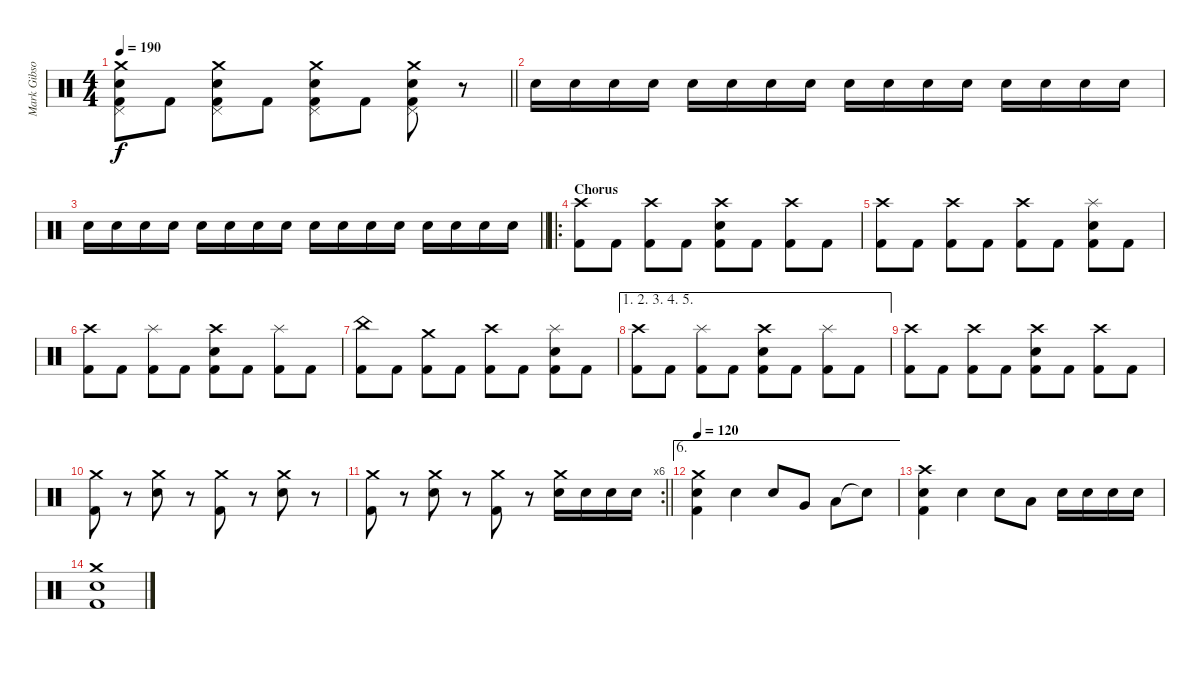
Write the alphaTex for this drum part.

\track ("Mark Gibson" "Mark Gibso") {instrument percussion}
\staff {score}
\articulation defaults
\ts (4 4)
\tempo 190
\clef neutral
\barLineRight lightlight
\ks c
("Crash medium (hit)" "Pedal Hi-Hat (hit)" "Electric Snare (hit)" "Kick (hit) 2").8{dy f} "Kick (hit) 2".8 ("Crash medium (hit)" "Pedal Hi-Hat (hit)" "Electric Snare (hit)" "Kick (hit) 2").8 "Kick (hit) 2".8 ("Crash medium (hit)" "Pedal Hi-Hat (hit)" "Electric Snare (hit)" "Kick (hit) 2").8 "Kick (hit) 2".8 ("Crash medium (hit)" "Pedal Hi-Hat (hit)" "Electric Snare (hit)" "Kick (hit) 2").8 r.8 |
"Electric Snare (hit)".16 "Electric Snare (hit)".16 "Electric Snare (hit)".16 "Electric Snare (hit)".16 "Electric Snare (hit)".16 "Electric Snare (hit)".16 "Electric Snare (hit)".16 "Electric Snare (hit)".16 "Electric Snare (hit)".16 "Electric Snare (hit)".16 "Electric Snare (hit)".16 "Electric Snare (hit)".16 "Electric Snare (hit)".16 "Electric Snare (hit)".16 "Electric Snare (hit)".16 "Electric Snare (hit)".16 |
\barLineRight lightlight "Electric Snare (hit)".16 "Electric Snare (hit)".16 "Electric Snare (hit)".16 "Electric Snare (hit)".16 "Electric Snare (hit)".16 "Electric Snare (hit)".16 "Electric Snare (hit)".16 "Electric Snare (hit)".16 "Electric Snare (hit)".16 "Electric Snare (hit)".16 "Electric Snare (hit)".16 "Electric Snare (hit)".16 "Electric Snare (hit)".16 "Electric Snare (hit)".16 "Electric Snare (hit)".16 "Electric Snare (hit)".16
|
\ro
\section ("" "Chorus")
("Crash high (hit)" "Kick (hit) 2").8 "Kick (hit) 2".8 ("Crash high (hit)" "Kick (hit) 2").8 "Kick (hit) 2".8 ("Crash high (hit)" "Electric Snare (hit)" "Kick (hit) 2").8 "Kick (hit) 2".8 ("Crash high (hit)" "Kick (hit) 2").8 "Kick (hit) 2".8 |
("Crash high (hit)" "Kick (hit) 2").8 "Kick (hit) 2".8 ("Crash high (hit)" "Kick (hit) 2").8 "Kick (hit) 2".8 ("Crash high (hit)" "Kick (hit) 2").8 "Kick (hit) 2".8 ("Splash (hit)" "Electric Snare (hit)" "Kick (hit) 2").8 "Kick (hit) 2".8 |
("Crash high (hit)" "Kick (hit) 2").8 "Kick (hit) 2".8 ("Splash (hit)" "Kick (hit) 2").8 "Kick (hit) 2".8 ("Crash high (hit)" "Electric Snare (hit)" "Kick (hit) 2").8 "Kick (hit) 2".8 ("Splash (hit)" "Kick (hit) 2").8 "Kick (hit) 2".8 |
("China (hit)" "Kick (hit) 2").8 "Kick (hit) 2".8 ("Crash medium (hit)" "Kick (hit) 2").8 "Kick (hit) 2".8 ("Crash high (hit)" "Kick (hit) 2").8 "Kick (hit) 2".8 ("Splash (hit)" "Electric Snare (hit)" "Kick (hit) 2").8 "Kick (hit) 2".8 |
\ae (1 2 3 4 5)
("Crash high (hit)" "Kick (hit) 2").8 "Kick (hit) 2".8 ("Splash (hit)" "Kick (hit) 2").8 "Kick (hit) 2".8 ("Crash high (hit)" "Electric Snare (hit)" "Kick (hit) 2").8 "Kick (hit) 2".8 ("Splash (hit)" "Kick (hit) 2").8 "Kick (hit) 2".8 |
("Crash high (hit)" "Kick (hit) 2").8 "Kick (hit) 2".8 ("Crash high (hit)" "Kick (hit) 2").8 "Kick (hit) 2".8 ("Crash high (hit)" "Electric Snare (hit)" "Kick (hit) 2").8 "Kick (hit) 2".8 ("Crash high (hit)" "Kick (hit) 2").8 "Kick (hit) 2".8 |
("Crash medium (hit)" "Kick (hit) 2").8 r.8 ("Crash medium (hit)" "Electric Snare (hit)").8 r.8 ("Crash medium (hit)" "Kick (hit) 2").8 r.8 ("Crash medium (hit)" "Electric Snare (hit)").8 r.8 |
\rc 6
\barLineRight lightlight
("Crash medium (hit)" "Kick (hit) 2").8 r.8 ("Crash medium (hit)" "Electric Snare (hit)").8 r.8 ("Crash medium (hit)" "Kick (hit) 2").8 r.8 ("Crash medium (hit)" "Electric Snare (hit)").16 "Electric Snare (hit)".16 "Electric Snare (hit)".16 "Electric Snare (hit)".16 |
\ae 6
\tempo 120
("Crash medium (hit)" "Electric Snare (hit)" "Kick (hit) 2").4 "Electric Snare (hit)".4 "Electric Snare (hit)".8 "Very Low Tom (hit)".8 "Low Floor Tom (hit)".8 "Snare (hit)"{t}.8 |
("Crash high (hit)" "Electric Snare (hit)" "Kick (hit) 2").4 "Electric Snare (hit)".4 "Electric Snare (hit)".8 "Low Tom (hit)".8 "Electric Snare (hit)".16 "Electric Snare (hit)".16 "Electric Snare (hit)".16 "Electric Snare (hit)".16 |
("Crash medium (hit)" "Electric Snare (hit)" "Kick (hit) 2").1
